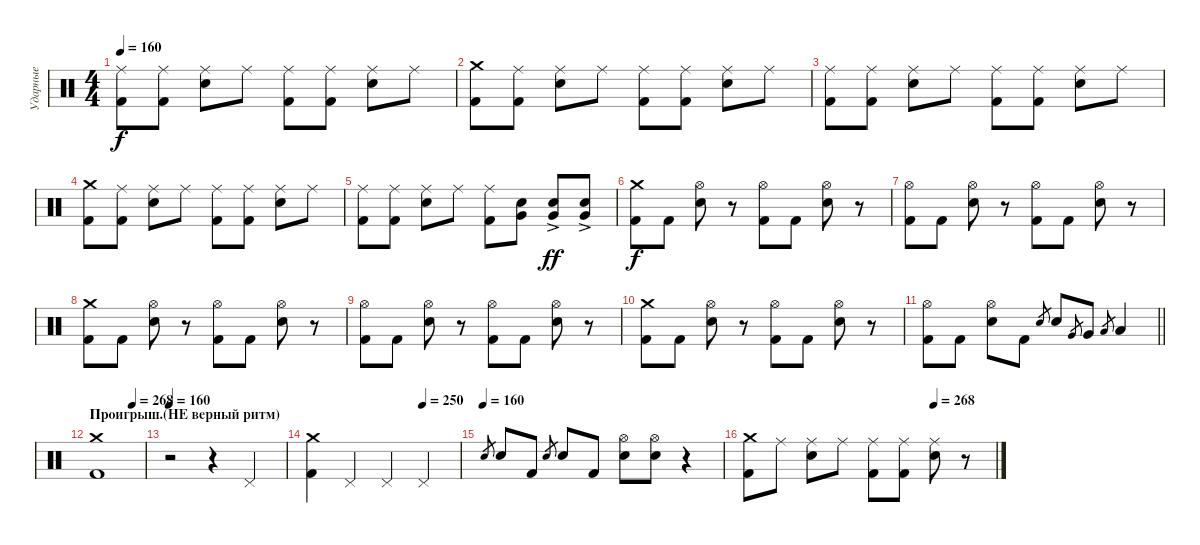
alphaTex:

\track ("Ударные" "Ударные") {instrument percussion}
\staff {score}
\articulation defaults
\ts (4 4)
\tempo 160
\clef neutral
\ks c
("Ride (middle)" "Kick (hit) 2").8{dy f} ("Ride (middle)" "Kick (hit) 2").8 ("Ride (middle)" "Snare (hit) 2").8 "Ride (middle)".8 ("Ride (middle)" "Kick (hit) 2").8 ("Ride (middle)" "Kick (hit) 2").8 ("Ride (middle)" "Snare (hit) 2").8 "Ride (middle)".8 |
("Crash medium (hit)" "Kick (hit) 2").8 ("Ride (middle)" "Kick (hit) 2").8 ("Ride (middle)" "Snare (hit) 2").8 "Ride (middle)".8 ("Ride (middle)" "Kick (hit) 2").8 ("Ride (middle)" "Kick (hit) 2").8 ("Ride (middle)" "Snare (hit) 2").8 "Ride (middle)".8 |
("Ride (middle)" "Kick (hit) 2").8 ("Ride (middle)" "Kick (hit) 2").8 ("Ride (middle)" "Snare (hit) 2").8 "Ride (middle)".8 ("Ride (middle)" "Kick (hit) 2").8 ("Ride (middle)" "Kick (hit) 2").8 ("Ride (middle)" "Snare (hit) 2").8 "Ride (middle)".8 |
("Crash medium (hit)" "Kick (hit) 2").8 ("Ride (middle)" "Kick (hit) 2").8 ("Ride (middle)" "Snare (hit) 2").8 "Ride (middle)".8 ("Ride (middle)" "Kick (hit) 2").8 ("Ride (middle)" "Kick (hit) 2").8 ("Ride (middle)" "Snare (hit) 2").8 "Ride (middle)".8 |
("Ride (middle)" "Kick (hit) 2").8 ("Ride (middle)" "Kick (hit) 2").8 ("Ride (middle)" "Snare (hit) 2").8 "Ride (middle)".8 ("Ride (middle)" "Kick (hit) 2").8 ("Very Low Tom (hit)" "Snare (hit) 2").8 ("Very Low Tom (hit)"{ac} "Snare (hit) 2"{ac}).8{dy ff} ("Very Low Tom (hit)"{ac} "Snare (hit) 2"{ac}).8 |
("Crash medium (hit)" "Kick (hit) 2").8{dy f} "Kick (hit) 2".8 ("Hi-Hat (open)" "Snare (hit) 2").8 r.8 ("Hi-Hat (open)" "Kick (hit) 2").8 "Kick (hit) 2".8 ("Hi-Hat (open)" "Snare (hit) 2").8 r.8 |
("Hi-Hat (open)" "Kick (hit) 2").8 "Kick (hit) 2".8 ("Hi-Hat (open)" "Snare (hit) 2").8 r.8 ("Hi-Hat (open)" "Kick (hit) 2").8 "Kick (hit) 2".8 ("Hi-Hat (open)" "Snare (hit) 2").8 r.8 |
("Crash medium (hit)" "Kick (hit) 2").8 "Kick (hit) 2".8 ("Hi-Hat (open)" "Snare (hit) 2").8 r.8 ("Hi-Hat (open)" "Kick (hit) 2").8 "Kick (hit) 2".8 ("Hi-Hat (open)" "Snare (hit) 2").8 r.8 |
("Hi-Hat (open)" "Kick (hit) 2").8 "Kick (hit) 2".8 ("Hi-Hat (open)" "Snare (hit) 2").8 r.8 ("Hi-Hat (open)" "Kick (hit) 2").8 "Kick (hit) 2".8 ("Hi-Hat (open)" "Snare (hit) 2").8 r.8 |
("Crash medium (hit)" "Kick (hit) 2").8 "Kick (hit) 2".8 ("Hi-Hat (open)" "Snare (hit) 2").8 r.8 ("Hi-Hat (open)" "Kick (hit) 2").8 "Kick (hit) 2".8 ("Hi-Hat (open)" "Snare (hit) 2").8 r.8 |
\barLineRight lightlight
("Hi-Hat (open)" "Kick (hit) 2").8 "Kick (hit) 2".8 ("Hi-Hat (open)" "Snare (hit) 2").8 "Kick (hit) 2".8 "Snare (hit) 2".8{gr} "Snare (hit) 2".8 "Very Low Tom (hit)".8{gr} "Very Low Tom (hit)".8 "Low Tom (hit)".8{gr} "Low Tom (hit)".4 |
\section ("" "Проигрыш.(НЕ верный ритм)")
\tempo (268 0.75)
("Crash medium (hit)" "Kick (hit) 2").1 |
\tempo 160
r.2 r.4 "Pedal Hi-Hat (hit)".4 |
\tempo (250 0.75)
("Crash medium (hit)" "Kick (hit) 2").4 "Pedal Hi-Hat (hit)".4 "Pedal Hi-Hat (hit)".4 "Pedal Hi-Hat (hit)".4 |
\tempo (160)
"Snare (hit) 2".8{gr} "Snare (hit) 2".8 "Kick (hit) 2".8 "Snare (hit) 2".8{gr} "Snare (hit) 2".8 "Kick (hit) 2".8 ("Hi-Hat (open)" "Snare (hit) 2").8 ("Hi-Hat (open)" "Snare (hit) 2").8 r.4 |
\tempo (268 0.75)
("Crash medium (hit)" "Kick (hit) 2").8 "Ride (middle)".8 ("Ride (middle)" "Snare (hit) 2").8 "Ride (middle)".8 ("Ride (middle)" "Kick (hit) 2").8 ("Ride (middle)" "Kick (hit) 2").8 ("Ride (middle)" "Snare (hit) 2").8 r.8
